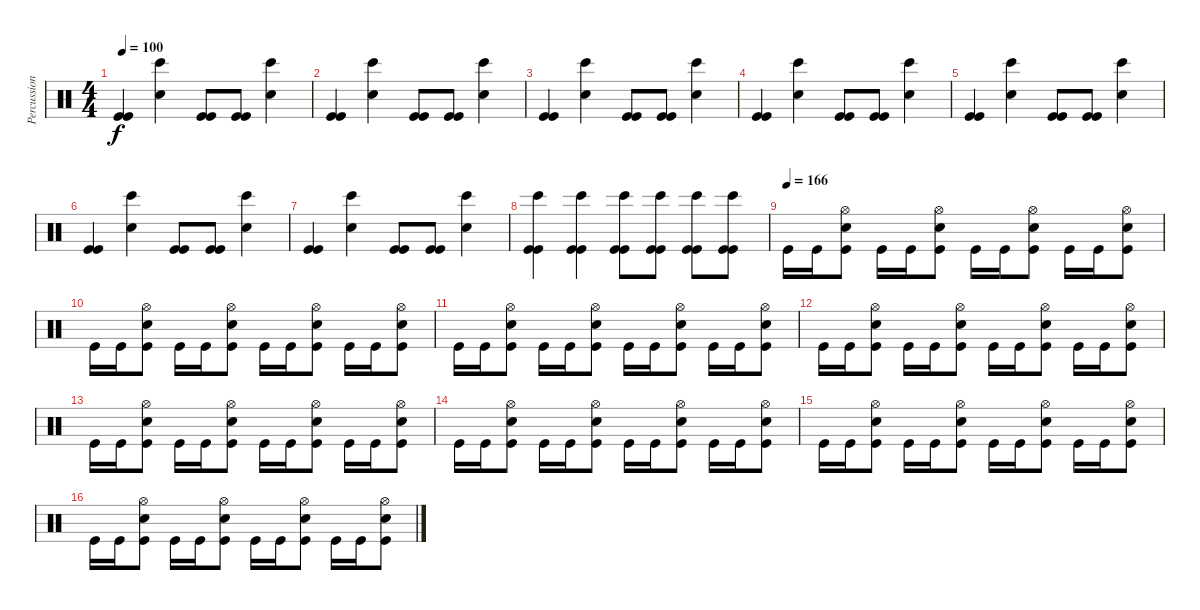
\track ("Percussioni" "Percussion") {instrument percussion}
\staff {score}
\articulation defaults
\ts (4 4)
\tempo 100
\clef neutral
\ks c
("Kick (hit)" "Kick (hit)").4{dy f} ("Bongo High (hit)" "Snare (hit) 2").4 ("Kick (hit)" "Kick (hit)").8 ("Kick (hit)" "Kick (hit)").8 ("Bongo High (hit)" "Snare (hit) 2").4 |
("Kick (hit)" "Kick (hit)").4 ("Bongo High (hit)" "Snare (hit) 2").4 ("Kick (hit)" "Kick (hit)").8 ("Kick (hit)" "Kick (hit)").8 ("Bongo High (hit)" "Snare (hit) 2").4 |
("Kick (hit)" "Kick (hit)").4 ("Bongo High (hit)" "Snare (hit) 2").4 ("Kick (hit)" "Kick (hit)").8 ("Kick (hit)" "Kick (hit)").8 ("Bongo High (hit)" "Snare (hit) 2").4 |
("Kick (hit)" "Kick (hit)").4 ("Bongo High (hit)" "Snare (hit) 2").4 ("Kick (hit)" "Kick (hit)").8 ("Kick (hit)" "Kick (hit)").8 ("Bongo High (hit)" "Snare (hit) 2").4 |
("Kick (hit)" "Kick (hit)").4 ("Bongo High (hit)" "Snare (hit) 2").4 ("Kick (hit)" "Kick (hit)").8 ("Kick (hit)" "Kick (hit)").8 ("Bongo High (hit)" "Snare (hit) 2").4 |
("Kick (hit)" "Kick (hit)").4 ("Bongo High (hit)" "Snare (hit) 2").4 ("Kick (hit)" "Kick (hit)").8 ("Kick (hit)" "Kick (hit)").8 ("Bongo High (hit)" "Snare (hit) 2").4 |
("Kick (hit)" "Kick (hit)").4 ("Bongo High (hit)" "Snare (hit) 2").4 ("Kick (hit)" "Kick (hit)").8 ("Kick (hit)" "Kick (hit)").8 ("Bongo High (hit)" "Snare (hit) 2").4 |
("Bongo High (hit)" "Kick (hit)" "Kick (hit)").4 ("Bongo High (hit)" "Kick (hit)" "Kick (hit)").4 ("Bongo High (hit)" "Kick (hit)" "Kick (hit)").8 ("Bongo High (hit)" "Kick (hit)" "Kick (hit)").8 ("Bongo High (hit)" "Kick (hit)" "Kick (hit)").8 ("Bongo High (hit)" "Kick (hit)" "Kick (hit)").8 |
\tempo (166)
"Kick (hit)".16 "Kick (hit)".16 ("Hi-Hat (open)" "Snare (hit) 2" "Kick (hit)").8 "Kick (hit)".16 "Kick (hit)".16 ("Hi-Hat (open)" "Snare (hit) 2" "Kick (hit)").8 "Kick (hit)".16 "Kick (hit)".16 ("Hi-Hat (open)" "Snare (hit) 2" "Kick (hit)").8 "Kick (hit)".16 "Kick (hit)".16 ("Hi-Hat (open)" "Snare (hit) 2" "Kick (hit)").8 |
"Kick (hit)".16 "Kick (hit)".16 ("Hi-Hat (open)" "Snare (hit) 2" "Kick (hit)").8 "Kick (hit)".16 "Kick (hit)".16 ("Hi-Hat (open)" "Snare (hit) 2" "Kick (hit)").8 "Kick (hit)".16 "Kick (hit)".16 ("Hi-Hat (open)" "Snare (hit) 2" "Kick (hit)").8 "Kick (hit)".16 "Kick (hit)".16 ("Hi-Hat (open)" "Snare (hit) 2" "Kick (hit)").8 |
"Kick (hit)".16 "Kick (hit)".16 ("Hi-Hat (open)" "Snare (hit) 2" "Kick (hit)").8 "Kick (hit)".16 "Kick (hit)".16 ("Hi-Hat (open)" "Snare (hit) 2" "Kick (hit)").8 "Kick (hit)".16 "Kick (hit)".16 ("Hi-Hat (open)" "Snare (hit) 2" "Kick (hit)").8 "Kick (hit)".16 "Kick (hit)".16 ("Hi-Hat (open)" "Snare (hit) 2" "Kick (hit)").8 |
"Kick (hit)".16 "Kick (hit)".16 ("Hi-Hat (open)" "Snare (hit) 2" "Kick (hit)").8 "Kick (hit)".16 "Kick (hit)".16 ("Hi-Hat (open)" "Snare (hit) 2" "Kick (hit)").8 "Kick (hit)".16 "Kick (hit)".16 ("Hi-Hat (open)" "Snare (hit) 2" "Kick (hit)").8 "Kick (hit)".16 "Kick (hit)".16 ("Hi-Hat (open)" "Snare (hit) 2" "Kick (hit)").8 |
"Kick (hit)".16 "Kick (hit)".16 ("Hi-Hat (open)" "Snare (hit) 2" "Kick (hit)").8 "Kick (hit)".16 "Kick (hit)".16 ("Hi-Hat (open)" "Snare (hit) 2" "Kick (hit)").8 "Kick (hit)".16 "Kick (hit)".16 ("Hi-Hat (open)" "Snare (hit) 2" "Kick (hit)").8 "Kick (hit)".16 "Kick (hit)".16 ("Hi-Hat (open)" "Snare (hit) 2" "Kick (hit)").8 |
"Kick (hit)".16 "Kick (hit)".16 ("Hi-Hat (open)" "Snare (hit) 2" "Kick (hit)").8 "Kick (hit)".16 "Kick (hit)".16 ("Hi-Hat (open)" "Snare (hit) 2" "Kick (hit)").8 "Kick (hit)".16 "Kick (hit)".16 ("Hi-Hat (open)" "Snare (hit) 2" "Kick (hit)").8 "Kick (hit)".16 "Kick (hit)".16 ("Hi-Hat (open)" "Snare (hit) 2" "Kick (hit)").8 |
"Kick (hit)".16 "Kick (hit)".16 ("Hi-Hat (open)" "Snare (hit) 2" "Kick (hit)").8 "Kick (hit)".16 "Kick (hit)".16 ("Hi-Hat (open)" "Snare (hit) 2" "Kick (hit)").8 "Kick (hit)".16 "Kick (hit)".16 ("Hi-Hat (open)" "Snare (hit) 2" "Kick (hit)").8 "Kick (hit)".16 "Kick (hit)".16 ("Hi-Hat (open)" "Snare (hit) 2" "Kick (hit)").8 |
"Kick (hit)".16 "Kick (hit)".16 ("Hi-Hat (open)" "Snare (hit) 2" "Kick (hit)").8 "Kick (hit)".16 "Kick (hit)".16 ("Hi-Hat (open)" "Snare (hit) 2" "Kick (hit)").8 "Kick (hit)".16 "Kick (hit)".16 ("Hi-Hat (open)" "Snare (hit) 2" "Kick (hit)").8 "Kick (hit)".16 "Kick (hit)".16 ("Hi-Hat (open)" "Snare (hit) 2" "Kick (hit)").8
